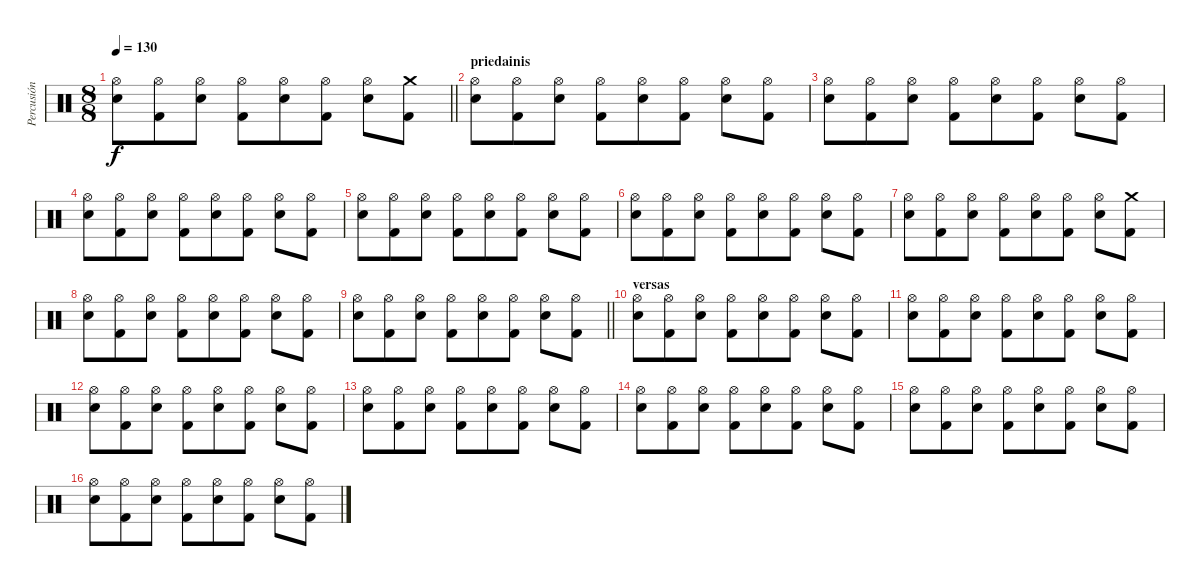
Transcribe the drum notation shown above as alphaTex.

\track ("Percusión" "Percusión") {instrument percussion}
\staff {score}
\articulation defaults
\ts (8 8)
\tempo 130
\clef neutral
\barLineRight lightlight
\ks c
("Hi-Hat (open)" "Snare (hit) 2").8{dy f} ("Hi-Hat (open)" "Kick (hit) 2").8 ("Hi-Hat (open)" "Snare (hit) 2").8 ("Hi-Hat (open)" "Kick (hit) 2").8 ("Hi-Hat (open)" "Snare (hit) 2").8 ("Hi-Hat (open)" "Kick (hit) 2").8 ("Hi-Hat (open)" "Snare (hit) 2").8 ("Crash medium (hit)" "Kick (hit) 2").8 |
\section ("" "priedainis")
("Hi-Hat (open)" "Snare (hit) 2").8 ("Hi-Hat (open)" "Kick (hit) 2").8 ("Hi-Hat (open)" "Snare (hit) 2").8 ("Hi-Hat (open)" "Kick (hit) 2").8 ("Hi-Hat (open)" "Snare (hit) 2").8 ("Hi-Hat (open)" "Kick (hit) 2").8 ("Hi-Hat (open)" "Snare (hit) 2").8 ("Hi-Hat (open)" "Kick (hit) 2").8 |
("Hi-Hat (open)" "Snare (hit) 2").8 ("Hi-Hat (open)" "Kick (hit) 2").8 ("Hi-Hat (open)" "Snare (hit) 2").8 ("Hi-Hat (open)" "Kick (hit) 2").8 ("Hi-Hat (open)" "Snare (hit) 2").8 ("Hi-Hat (open)" "Kick (hit) 2").8 ("Hi-Hat (open)" "Snare (hit) 2").8 ("Hi-Hat (open)" "Kick (hit) 2").8 |
("Hi-Hat (open)" "Snare (hit) 2").8 ("Hi-Hat (open)" "Kick (hit) 2").8 ("Hi-Hat (open)" "Snare (hit) 2").8 ("Hi-Hat (open)" "Kick (hit) 2").8 ("Hi-Hat (open)" "Snare (hit) 2").8 ("Hi-Hat (open)" "Kick (hit) 2").8 ("Hi-Hat (open)" "Snare (hit) 2").8 ("Hi-Hat (open)" "Kick (hit) 2").8 |
("Hi-Hat (open)" "Snare (hit) 2").8 ("Hi-Hat (open)" "Kick (hit) 2").8 ("Hi-Hat (open)" "Snare (hit) 2").8 ("Hi-Hat (open)" "Kick (hit) 2").8 ("Hi-Hat (open)" "Snare (hit) 2").8 ("Hi-Hat (open)" "Kick (hit) 2").8 ("Hi-Hat (open)" "Snare (hit) 2").8 ("Hi-Hat (open)" "Kick (hit) 2").8 |
("Hi-Hat (open)" "Snare (hit) 2").8 ("Hi-Hat (open)" "Kick (hit) 2").8 ("Hi-Hat (open)" "Snare (hit) 2").8 ("Hi-Hat (open)" "Kick (hit) 2").8 ("Hi-Hat (open)" "Snare (hit) 2").8 ("Hi-Hat (open)" "Kick (hit) 2").8 ("Hi-Hat (open)" "Snare (hit) 2").8 ("Hi-Hat (open)" "Kick (hit) 2").8 |
("Hi-Hat (open)" "Snare (hit) 2").8 ("Hi-Hat (open)" "Kick (hit) 2").8 ("Hi-Hat (open)" "Snare (hit) 2").8 ("Hi-Hat (open)" "Kick (hit) 2").8 ("Hi-Hat (open)" "Snare (hit) 2").8 ("Hi-Hat (open)" "Kick (hit) 2").8 ("Hi-Hat (open)" "Snare (hit) 2").8 ("Crash medium (hit)" "Kick (hit) 2").8 |
("Hi-Hat (open)" "Snare (hit) 2").8 ("Hi-Hat (open)" "Kick (hit) 2").8 ("Hi-Hat (open)" "Snare (hit) 2").8 ("Hi-Hat (open)" "Kick (hit) 2").8 ("Hi-Hat (open)" "Snare (hit) 2").8 ("Hi-Hat (open)" "Kick (hit) 2").8 ("Hi-Hat (open)" "Snare (hit) 2").8 ("Hi-Hat (open)" "Kick (hit) 2").8 |
\barLineRight lightlight
("Hi-Hat (open)" "Snare (hit) 2").8 ("Hi-Hat (open)" "Kick (hit) 2").8 ("Hi-Hat (open)" "Snare (hit) 2").8 ("Hi-Hat (open)" "Kick (hit) 2").8 ("Hi-Hat (open)" "Snare (hit) 2").8 ("Hi-Hat (open)" "Kick (hit) 2").8 ("Hi-Hat (open)" "Snare (hit) 2").8 ("Hi-Hat (open)" "Kick (hit) 2").8 |
\section ("" "versas")
("Hi-Hat (open)" "Snare (hit) 2").8 ("Hi-Hat (open)" "Kick (hit) 2").8 ("Hi-Hat (open)" "Snare (hit) 2").8 ("Hi-Hat (open)" "Kick (hit) 2").8 ("Hi-Hat (open)" "Snare (hit) 2").8 ("Hi-Hat (open)" "Kick (hit) 2").8 ("Hi-Hat (open)" "Snare (hit) 2").8 ("Hi-Hat (open)" "Kick (hit) 2").8 |
("Hi-Hat (open)" "Snare (hit) 2").8 ("Hi-Hat (open)" "Kick (hit) 2").8 ("Hi-Hat (open)" "Snare (hit) 2").8 ("Hi-Hat (open)" "Kick (hit) 2").8 ("Hi-Hat (open)" "Snare (hit) 2").8 ("Hi-Hat (open)" "Kick (hit) 2").8 ("Hi-Hat (open)" "Snare (hit) 2").8 ("Hi-Hat (open)" "Kick (hit) 2").8 |
("Hi-Hat (open)" "Snare (hit) 2").8 ("Hi-Hat (open)" "Kick (hit) 2").8 ("Hi-Hat (open)" "Snare (hit) 2").8 ("Hi-Hat (open)" "Kick (hit) 2").8 ("Hi-Hat (open)" "Snare (hit) 2").8 ("Hi-Hat (open)" "Kick (hit) 2").8 ("Hi-Hat (open)" "Snare (hit) 2").8 ("Hi-Hat (open)" "Kick (hit) 2").8 |
("Hi-Hat (open)" "Snare (hit) 2").8 ("Hi-Hat (open)" "Kick (hit) 2").8 ("Hi-Hat (open)" "Snare (hit) 2").8 ("Hi-Hat (open)" "Kick (hit) 2").8 ("Hi-Hat (open)" "Snare (hit) 2").8 ("Hi-Hat (open)" "Kick (hit) 2").8 ("Hi-Hat (open)" "Snare (hit) 2").8 ("Hi-Hat (open)" "Kick (hit) 2").8 |
("Hi-Hat (open)" "Snare (hit) 2").8 ("Hi-Hat (open)" "Kick (hit) 2").8 ("Hi-Hat (open)" "Snare (hit) 2").8 ("Hi-Hat (open)" "Kick (hit) 2").8 ("Hi-Hat (open)" "Snare (hit) 2").8 ("Hi-Hat (open)" "Kick (hit) 2").8 ("Hi-Hat (open)" "Snare (hit) 2").8 ("Hi-Hat (open)" "Kick (hit) 2").8 |
("Hi-Hat (open)" "Snare (hit) 2").8 ("Hi-Hat (open)" "Kick (hit) 2").8 ("Hi-Hat (open)" "Snare (hit) 2").8 ("Hi-Hat (open)" "Kick (hit) 2").8 ("Hi-Hat (open)" "Snare (hit) 2").8 ("Hi-Hat (open)" "Kick (hit) 2").8 ("Hi-Hat (open)" "Snare (hit) 2").8 ("Hi-Hat (open)" "Kick (hit) 2").8 |
("Hi-Hat (open)" "Snare (hit) 2").8 ("Hi-Hat (open)" "Kick (hit) 2").8 ("Hi-Hat (open)" "Snare (hit) 2").8 ("Hi-Hat (open)" "Kick (hit) 2").8 ("Hi-Hat (open)" "Snare (hit) 2").8 ("Hi-Hat (open)" "Kick (hit) 2").8 ("Hi-Hat (open)" "Snare (hit) 2").8 ("Hi-Hat (open)" "Kick (hit) 2").8
